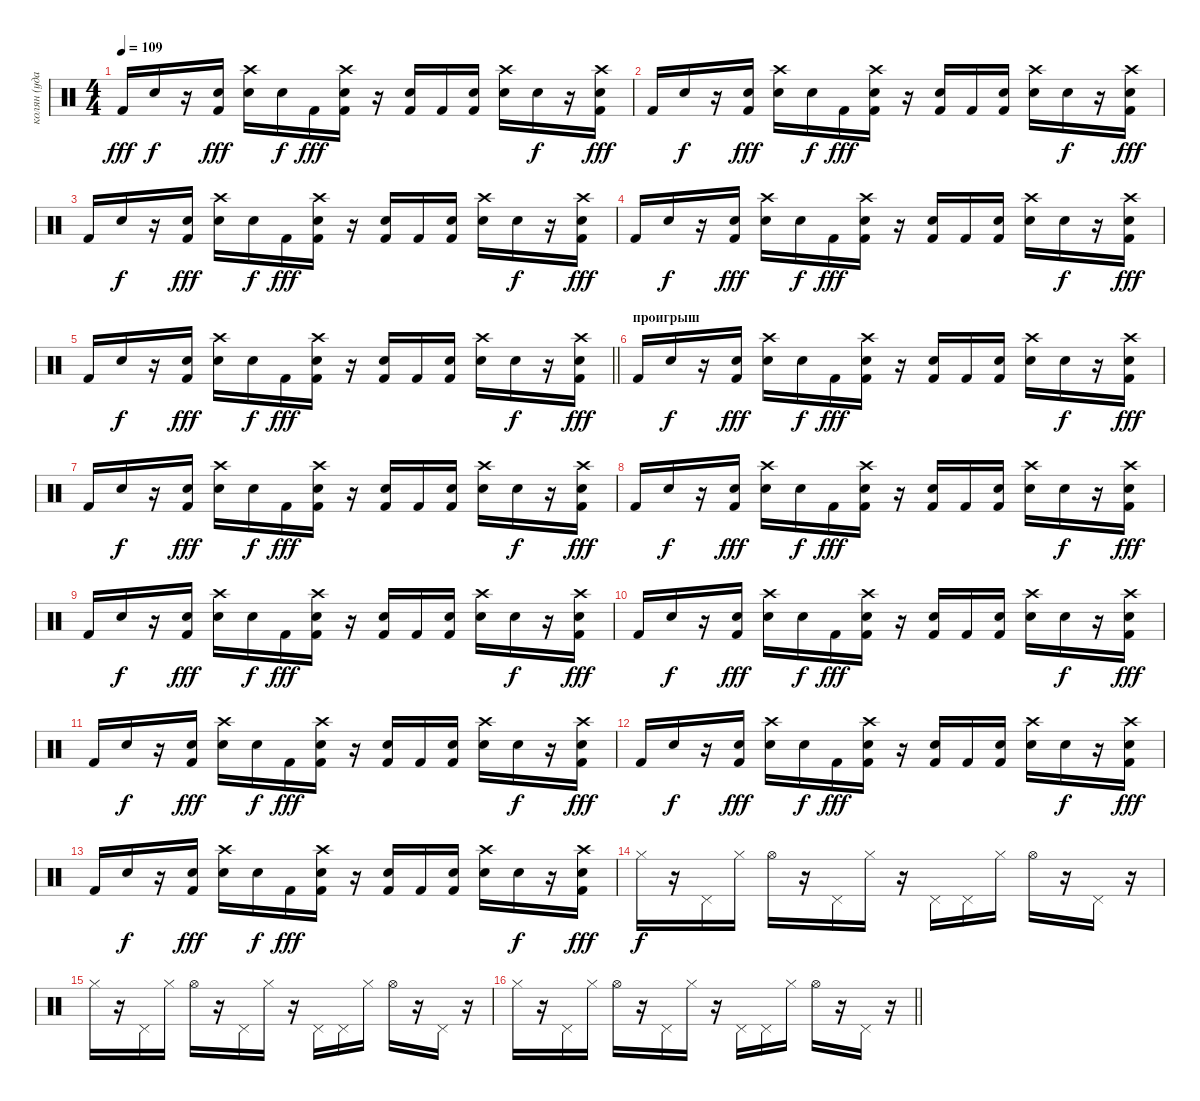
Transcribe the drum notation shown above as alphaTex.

\track ("колян (ударные)" "колян (уда") {instrument percussion}
\staff
\articulation defaults
\ts (4 4)
\tempo 109
\clef neutral
\ks c "Kick (hit) 2".16{dy fff} "Snare (hit) 2".16{dy f}
r.16 ("Snare (hit) 2" "Kick (hit) 2").16{dy fff} ("Crash high (hit)" "Snare (hit) 2").16 "Snare (hit) 2".16{dy f} "Kick (hit) 2".16{dy fff} ("Crash high (hit)" "Snare (hit) 2" "Kick (hit) 2").16 r.16 ("Snare (hit) 2" "Kick (hit) 2").16 "Kick (hit) 2".16 ("Snare (hit) 2" "Kick (hit) 2").16 ("Crash high (hit)" "Snare (hit) 2").16 "Snare (hit) 2".16{dy f} r.16 ("Crash high (hit)" "Snare (hit) 2" "Kick (hit) 2").16{dy fff} |
"Kick (hit) 2".16 "Snare (hit) 2".16{dy f} r.16 ("Snare (hit) 2" "Kick (hit) 2").16{dy fff} ("Crash high (hit)" "Snare (hit) 2").16 "Snare (hit) 2".16{dy f} "Kick (hit) 2".16{dy fff} ("Crash high (hit)" "Snare (hit) 2" "Kick (hit) 2").16 r.16 ("Snare (hit) 2" "Kick (hit) 2").16 "Kick (hit) 2".16 ("Snare (hit) 2" "Kick (hit) 2").16 ("Crash high (hit)" "Snare (hit) 2").16 "Snare (hit) 2".16{dy f} r.16 ("Crash high (hit)" "Snare (hit) 2" "Kick (hit) 2").16{dy fff} |
"Kick (hit) 2".16 "Snare (hit) 2".16{dy f} r.16 ("Snare (hit) 2" "Kick (hit) 2").16{dy fff} ("Crash high (hit)" "Snare (hit) 2").16 "Snare (hit) 2".16{dy f} "Kick (hit) 2".16{dy fff} ("Crash high (hit)" "Snare (hit) 2" "Kick (hit) 2").16 r.16 ("Snare (hit) 2" "Kick (hit) 2").16 "Kick (hit) 2".16 ("Snare (hit) 2" "Kick (hit) 2").16 ("Crash high (hit)" "Snare (hit) 2").16 "Snare (hit) 2".16{dy f} r.16 ("Crash high (hit)" "Snare (hit) 2" "Kick (hit) 2").16{dy fff} |
"Kick (hit) 2".16 "Snare (hit) 2".16{dy f} r.16 ("Snare (hit) 2" "Kick (hit) 2").16{dy fff} ("Crash high (hit)" "Snare (hit) 2").16 "Snare (hit) 2".16{dy f} "Kick (hit) 2".16{dy fff} ("Crash high (hit)" "Snare (hit) 2" "Kick (hit) 2").16 r.16 ("Snare (hit) 2" "Kick (hit) 2").16 "Kick (hit) 2".16 ("Snare (hit) 2" "Kick (hit) 2").16 ("Crash high (hit)" "Snare (hit) 2").16 "Snare (hit) 2".16{dy f} r.16 ("Crash high (hit)" "Snare (hit) 2" "Kick (hit) 2").16{dy fff} |
\barLineRight lightlight "Kick (hit) 2".16 "Snare (hit) 2".16{dy f}
r.16 ("Snare (hit) 2" "Kick (hit) 2").16{dy fff} ("Crash high (hit)" "Snare (hit) 2").16 "Snare (hit) 2".16{dy f} "Kick (hit) 2".16{dy fff} ("Crash high (hit)" "Snare (hit) 2" "Kick (hit) 2").16 r.16 ("Snare (hit) 2" "Kick (hit) 2").16 "Kick (hit) 2".16 ("Snare (hit) 2" "Kick (hit) 2").16 ("Crash high (hit)" "Snare (hit) 2").16 "Snare (hit) 2".16{dy f} r.16 ("Crash high (hit)" "Snare (hit) 2" "Kick (hit) 2").16{dy fff} |
\section ("" "проигрыш")
"Kick (hit) 2".16 "Snare (hit) 2".16{dy f} r.16 ("Snare (hit) 2" "Kick (hit) 2").16{dy fff} ("Crash high (hit)" "Snare (hit) 2").16 "Snare (hit) 2".16{dy f} "Kick (hit) 2".16{dy fff} ("Crash high (hit)" "Snare (hit) 2" "Kick (hit) 2").16 r.16 ("Snare (hit) 2" "Kick (hit) 2").16 "Kick (hit) 2".16 ("Snare (hit) 2" "Kick (hit) 2").16 ("Crash high (hit)" "Snare (hit) 2").16 "Snare (hit) 2".16{dy f} r.16 ("Crash high (hit)" "Snare (hit) 2" "Kick (hit) 2").16{dy fff} |
"Kick (hit) 2".16 "Snare (hit) 2".16{dy f} r.16 ("Snare (hit) 2" "Kick (hit) 2").16{dy fff} ("Crash high (hit)" "Snare (hit) 2").16 "Snare (hit) 2".16{dy f} "Kick (hit) 2".16{dy fff} ("Crash high (hit)" "Snare (hit) 2" "Kick (hit) 2").16 r.16 ("Snare (hit) 2" "Kick (hit) 2").16 "Kick (hit) 2".16 ("Snare (hit) 2" "Kick (hit) 2").16 ("Crash high (hit)" "Snare (hit) 2").16 "Snare (hit) 2".16{dy f} r.16 ("Crash high (hit)" "Snare (hit) 2" "Kick (hit) 2").16{dy fff} |
"Kick (hit) 2".16 "Snare (hit) 2".16{dy f} r.16 ("Snare (hit) 2" "Kick (hit) 2").16{dy fff} ("Crash high (hit)" "Snare (hit) 2").16 "Snare (hit) 2".16{dy f} "Kick (hit) 2".16{dy fff} ("Crash high (hit)" "Snare (hit) 2" "Kick (hit) 2").16 r.16 ("Snare (hit) 2" "Kick (hit) 2").16 "Kick (hit) 2".16 ("Snare (hit) 2" "Kick (hit) 2").16 ("Crash high (hit)" "Snare (hit) 2").16 "Snare (hit) 2".16{dy f} r.16 ("Crash high (hit)" "Snare (hit) 2" "Kick (hit) 2").16{dy fff} |
"Kick (hit) 2".16 "Snare (hit) 2".16{dy f} r.16 ("Snare (hit) 2" "Kick (hit) 2").16{dy fff} ("Crash high (hit)" "Snare (hit) 2").16 "Snare (hit) 2".16{dy f} "Kick (hit) 2".16{dy fff} ("Crash high (hit)" "Snare (hit) 2" "Kick (hit) 2").16 r.16 ("Snare (hit) 2" "Kick (hit) 2").16 "Kick (hit) 2".16 ("Snare (hit) 2" "Kick (hit) 2").16 ("Crash high (hit)" "Snare (hit) 2").16 "Snare (hit) 2".16{dy f} r.16 ("Crash high (hit)" "Snare (hit) 2" "Kick (hit) 2").16{dy fff} |
"Kick (hit) 2".16 "Snare (hit) 2".16{dy f} r.16 ("Snare (hit) 2" "Kick (hit) 2").16{dy fff} ("Crash high (hit)" "Snare (hit) 2").16 "Snare (hit) 2".16{dy f} "Kick (hit) 2".16{dy fff} ("Crash high (hit)" "Snare (hit) 2" "Kick (hit) 2").16 r.16 ("Snare (hit) 2" "Kick (hit) 2").16 "Kick (hit) 2".16 ("Snare (hit) 2" "Kick (hit) 2").16 ("Crash high (hit)" "Snare (hit) 2").16 "Snare (hit) 2".16{dy f} r.16 ("Crash high (hit)" "Snare (hit) 2" "Kick (hit) 2").16{dy fff} |
"Kick (hit) 2".16 "Snare (hit) 2".16{dy f} r.16 ("Snare (hit) 2" "Kick (hit) 2").16{dy fff} ("Crash high (hit)" "Snare (hit) 2").16 "Snare (hit) 2".16{dy f} "Kick (hit) 2".16{dy fff} ("Crash high (hit)" "Snare (hit) 2" "Kick (hit) 2").16 r.16 ("Snare (hit) 2" "Kick (hit) 2").16 "Kick (hit) 2".16 ("Snare (hit) 2" "Kick (hit) 2").16 ("Crash high (hit)" "Snare (hit) 2").16 "Snare (hit) 2".16{dy f} r.16 ("Crash high (hit)" "Snare (hit) 2" "Kick (hit) 2").16{dy fff} |
"Kick (hit) 2".16 "Snare (hit) 2".16{dy f} r.16 ("Snare (hit) 2" "Kick (hit) 2").16{dy fff} ("Crash high (hit)" "Snare (hit) 2").16 "Snare (hit) 2".16{dy f} "Kick (hit) 2".16{dy fff} ("Crash high (hit)" "Snare (hit) 2" "Kick (hit) 2").16 r.16 ("Snare (hit) 2" "Kick (hit) 2").16 "Kick (hit) 2".16 ("Snare (hit) 2" "Kick (hit) 2").16 ("Crash high (hit)" "Snare (hit) 2").16 "Snare (hit) 2".16{dy f} r.16 ("Crash high (hit)" "Snare (hit) 2" "Kick (hit) 2").16{dy fff} |
"Kick (hit) 2".16 "Snare (hit) 2".16{dy f} r.16 ("Snare (hit) 2" "Kick (hit) 2").16{dy fff} ("Crash high (hit)" "Snare (hit) 2").16 "Snare (hit) 2".16{dy f} "Kick (hit) 2".16{dy fff} ("Crash high (hit)" "Snare (hit) 2" "Kick (hit) 2").16 r.16 ("Snare (hit) 2" "Kick (hit) 2").16 "Kick (hit) 2".16 ("Snare (hit) 2" "Kick (hit) 2").16 ("Crash high (hit)" "Snare (hit) 2").16 "Snare (hit) 2".16{dy f} r.16 ("Crash high (hit)" "Snare (hit) 2" "Kick (hit) 2").16{dy fff} |
"Hi-Hat (closed)".16{dy f} r.16 "Pedal Hi-Hat (hit)".16 "Hi-Hat (closed)".16 "Hi-Hat (open)".16 r.16 "Pedal Hi-Hat (hit)".16 "Hi-Hat (closed)".16 r.16 "Pedal Hi-Hat (hit)".16 "Pedal Hi-Hat (hit)".16 "Hi-Hat (closed)".16 "Hi-Hat (open)".16 r.16 "Pedal Hi-Hat (hit)".16 r.16 |
"Hi-Hat (closed)".16 r.16 "Pedal Hi-Hat (hit)".16 "Hi-Hat (closed)".16 "Hi-Hat (open)".16 r.16 "Pedal Hi-Hat (hit)".16 "Hi-Hat (closed)".16 r.16 "Pedal Hi-Hat (hit)".16 "Pedal Hi-Hat (hit)".16 "Hi-Hat (closed)".16 "Hi-Hat (open)".16 r.16 "Pedal Hi-Hat (hit)".16 r.16 |
\barLineRight lightlight "Hi-Hat (closed)".16
r.16 "Pedal Hi-Hat (hit)".16 "Hi-Hat (closed)".16 "Hi-Hat (open)".16 r.16 "Pedal Hi-Hat (hit)".16 "Hi-Hat (closed)".16 r.16 "Pedal Hi-Hat (hit)".16 "Pedal Hi-Hat (hit)".16 "Hi-Hat (closed)".16 "Hi-Hat (open)".16 r.16 "Pedal Hi-Hat (hit)".16 r.16
